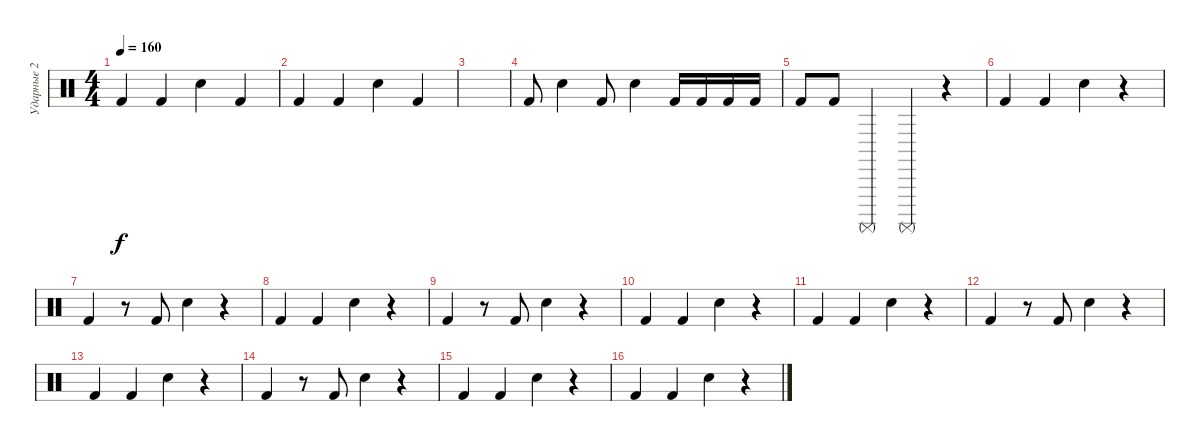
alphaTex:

\track ("Ударные 2" "Ударные 2") {instrument percussion}
\staff {score}
\articulation defaults
\ts (4 4)
\tempo 160
\clef neutral
\ks c "Kick (hit) 2".4{dy f} "Kick (hit) 2".4 "Hand Clap (hit)".4 "Kick (hit) 2".4
|
"Kick (hit) 2".4 "Kick (hit) 2".4 "Hand Clap (hit)".4 "Kick (hit) 2".4 |
|
"Kick (hit) 2".8 "Hand Clap (hit)".4 "Kick (hit) 2".8 "Hand Clap (hit)".4 "Kick (hit) 2".16 "Kick (hit) 2".16 "Kick (hit) 2".16 "Kick (hit) 2".16 |
"Kick (hit) 2".8 "Kick (hit) 2".8 "Surdo (mute)".4 "Surdo (mute)".4 r.4 |
"Kick (hit) 2".4 "Kick (hit) 2".4 "Hand Clap (hit)".4 r.4 |
"Kick (hit) 2".4 r.8 "Kick (hit) 2".8 "Hand Clap (hit)".4 r.4 |
"Kick (hit) 2".4 "Kick (hit) 2".4 "Hand Clap (hit)".4 r.4 |
"Kick (hit) 2".4 r.8 "Kick (hit) 2".8 "Hand Clap (hit)".4 r.4 |
"Kick (hit) 2".4 "Kick (hit) 2".4 "Hand Clap (hit)".4 r.4 |
"Kick (hit) 2".4 "Kick (hit) 2".4 "Hand Clap (hit)".4 r.4 |
"Kick (hit) 2".4 r.8 "Kick (hit) 2".8 "Hand Clap (hit)".4 r.4 |
"Kick (hit) 2".4 "Kick (hit) 2".4 "Hand Clap (hit)".4 r.4 |
"Kick (hit) 2".4 r.8 "Kick (hit) 2".8 "Hand Clap (hit)".4 r.4 |
"Kick (hit) 2".4 "Kick (hit) 2".4 "Hand Clap (hit)".4 r.4 |
"Kick (hit) 2".4 "Kick (hit) 2".4 "Hand Clap (hit)".4 r.4
